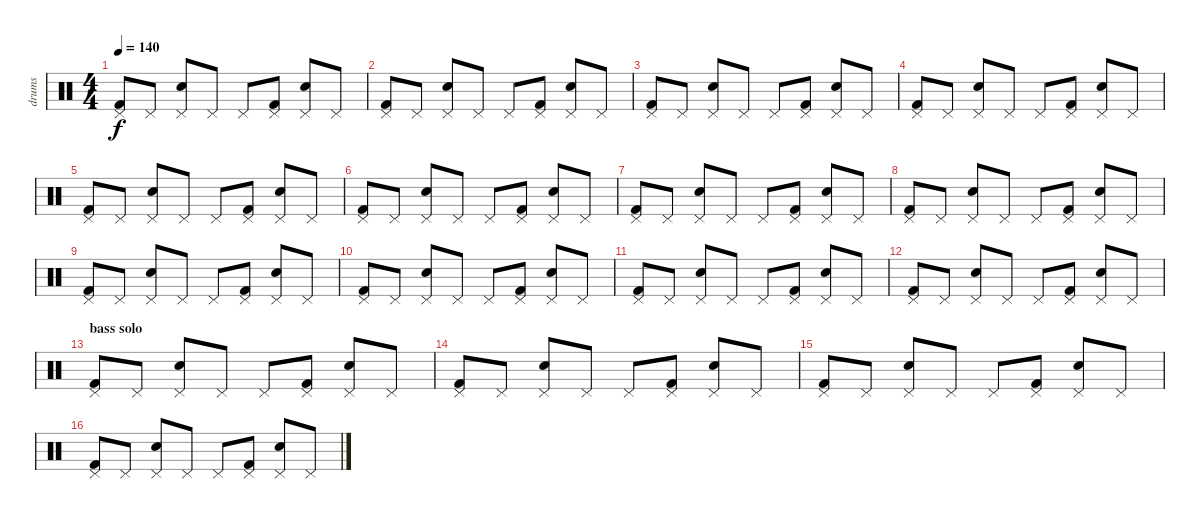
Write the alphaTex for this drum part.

\track ("drums" "drums") {instrument percussion}
\staff {score}
\articulation defaults
\ts (4 4)
\tempo 140
\clef neutral
\ks c
("Kick (hit) 2" "Pedal Hi-Hat (hit)").8{dy f} "Pedal Hi-Hat (hit)".8 ("Snare (hit) 2" "Pedal Hi-Hat (hit)").8 "Pedal Hi-Hat (hit)".8 "Pedal Hi-Hat (hit)".8 ("Kick (hit) 2" "Pedal Hi-Hat (hit)").8 ("Snare (hit) 2" "Pedal Hi-Hat (hit)").8 "Pedal Hi-Hat (hit)".8 |
("Kick (hit) 2" "Pedal Hi-Hat (hit)").8 "Pedal Hi-Hat (hit)".8 ("Snare (hit) 2" "Pedal Hi-Hat (hit)").8 "Pedal Hi-Hat (hit)".8 "Pedal Hi-Hat (hit)".8 ("Kick (hit) 2" "Pedal Hi-Hat (hit)").8 ("Snare (hit) 2" "Pedal Hi-Hat (hit)").8 "Pedal Hi-Hat (hit)".8 |
("Kick (hit) 2" "Pedal Hi-Hat (hit)").8 "Pedal Hi-Hat (hit)".8 ("Snare (hit) 2" "Pedal Hi-Hat (hit)").8 "Pedal Hi-Hat (hit)".8 "Pedal Hi-Hat (hit)".8 ("Kick (hit) 2" "Pedal Hi-Hat (hit)").8 ("Snare (hit) 2" "Pedal Hi-Hat (hit)").8 "Pedal Hi-Hat (hit)".8 |
("Kick (hit) 2" "Pedal Hi-Hat (hit)").8 "Pedal Hi-Hat (hit)".8 ("Snare (hit) 2" "Pedal Hi-Hat (hit)").8 "Pedal Hi-Hat (hit)".8 "Pedal Hi-Hat (hit)".8 ("Kick (hit) 2" "Pedal Hi-Hat (hit)").8 ("Snare (hit) 2" "Pedal Hi-Hat (hit)").8 "Pedal Hi-Hat (hit)".8 |
("Kick (hit) 2" "Pedal Hi-Hat (hit)").8 "Pedal Hi-Hat (hit)".8 ("Snare (hit) 2" "Pedal Hi-Hat (hit)").8 "Pedal Hi-Hat (hit)".8 "Pedal Hi-Hat (hit)".8 ("Kick (hit) 2" "Pedal Hi-Hat (hit)").8 ("Snare (hit) 2" "Pedal Hi-Hat (hit)").8 "Pedal Hi-Hat (hit)".8 |
("Kick (hit) 2" "Pedal Hi-Hat (hit)").8 "Pedal Hi-Hat (hit)".8 ("Snare (hit) 2" "Pedal Hi-Hat (hit)").8 "Pedal Hi-Hat (hit)".8 "Pedal Hi-Hat (hit)".8 ("Kick (hit) 2" "Pedal Hi-Hat (hit)").8 ("Snare (hit) 2" "Pedal Hi-Hat (hit)").8 "Pedal Hi-Hat (hit)".8 |
("Kick (hit) 2" "Pedal Hi-Hat (hit)").8 "Pedal Hi-Hat (hit)".8 ("Snare (hit) 2" "Pedal Hi-Hat (hit)").8 "Pedal Hi-Hat (hit)".8 "Pedal Hi-Hat (hit)".8 ("Kick (hit) 2" "Pedal Hi-Hat (hit)").8 ("Snare (hit) 2" "Pedal Hi-Hat (hit)").8 "Pedal Hi-Hat (hit)".8 |
("Kick (hit) 2" "Pedal Hi-Hat (hit)").8 "Pedal Hi-Hat (hit)".8 ("Snare (hit) 2" "Pedal Hi-Hat (hit)").8 "Pedal Hi-Hat (hit)".8 "Pedal Hi-Hat (hit)".8 ("Kick (hit) 2" "Pedal Hi-Hat (hit)").8 ("Snare (hit) 2" "Pedal Hi-Hat (hit)").8 "Pedal Hi-Hat (hit)".8 |
("Kick (hit) 2" "Pedal Hi-Hat (hit)").8 "Pedal Hi-Hat (hit)".8 ("Snare (hit) 2" "Pedal Hi-Hat (hit)").8 "Pedal Hi-Hat (hit)".8 "Pedal Hi-Hat (hit)".8 ("Kick (hit) 2" "Pedal Hi-Hat (hit)").8 ("Snare (hit) 2" "Pedal Hi-Hat (hit)").8 "Pedal Hi-Hat (hit)".8 |
("Kick (hit) 2" "Pedal Hi-Hat (hit)").8 "Pedal Hi-Hat (hit)".8 ("Snare (hit) 2" "Pedal Hi-Hat (hit)").8 "Pedal Hi-Hat (hit)".8 "Pedal Hi-Hat (hit)".8 ("Kick (hit) 2" "Pedal Hi-Hat (hit)").8 ("Snare (hit) 2" "Pedal Hi-Hat (hit)").8 "Pedal Hi-Hat (hit)".8 |
("Kick (hit) 2" "Pedal Hi-Hat (hit)").8 "Pedal Hi-Hat (hit)".8 ("Snare (hit) 2" "Pedal Hi-Hat (hit)").8 "Pedal Hi-Hat (hit)".8 "Pedal Hi-Hat (hit)".8 ("Kick (hit) 2" "Pedal Hi-Hat (hit)").8 ("Snare (hit) 2" "Pedal Hi-Hat (hit)").8 "Pedal Hi-Hat (hit)".8 |
("Kick (hit) 2" "Pedal Hi-Hat (hit)").8 "Pedal Hi-Hat (hit)".8 ("Snare (hit) 2" "Pedal Hi-Hat (hit)").8 "Pedal Hi-Hat (hit)".8 "Pedal Hi-Hat (hit)".8 ("Kick (hit) 2" "Pedal Hi-Hat (hit)").8 ("Snare (hit) 2" "Pedal Hi-Hat (hit)").8 "Pedal Hi-Hat (hit)".8 |
\section ("" "bass solo ")
("Kick (hit) 2" "Pedal Hi-Hat (hit)").8 "Pedal Hi-Hat (hit)".8 ("Snare (hit) 2" "Pedal Hi-Hat (hit)").8 "Pedal Hi-Hat (hit)".8 "Pedal Hi-Hat (hit)".8 ("Kick (hit) 2" "Pedal Hi-Hat (hit)").8 ("Snare (hit) 2" "Pedal Hi-Hat (hit)").8 "Pedal Hi-Hat (hit)".8 |
("Kick (hit) 2" "Pedal Hi-Hat (hit)").8 "Pedal Hi-Hat (hit)".8 ("Snare (hit) 2" "Pedal Hi-Hat (hit)").8 "Pedal Hi-Hat (hit)".8 "Pedal Hi-Hat (hit)".8 ("Kick (hit) 2" "Pedal Hi-Hat (hit)").8 ("Snare (hit) 2" "Pedal Hi-Hat (hit)").8 "Pedal Hi-Hat (hit)".8 |
("Kick (hit) 2" "Pedal Hi-Hat (hit)").8 "Pedal Hi-Hat (hit)".8 ("Snare (hit) 2" "Pedal Hi-Hat (hit)").8 "Pedal Hi-Hat (hit)".8 "Pedal Hi-Hat (hit)".8 ("Kick (hit) 2" "Pedal Hi-Hat (hit)").8 ("Snare (hit) 2" "Pedal Hi-Hat (hit)").8 "Pedal Hi-Hat (hit)".8 |
("Kick (hit) 2" "Pedal Hi-Hat (hit)").8 "Pedal Hi-Hat (hit)".8 ("Snare (hit) 2" "Pedal Hi-Hat (hit)").8 "Pedal Hi-Hat (hit)".8 "Pedal Hi-Hat (hit)".8 ("Kick (hit) 2" "Pedal Hi-Hat (hit)").8 ("Snare (hit) 2" "Pedal Hi-Hat (hit)").8 "Pedal Hi-Hat (hit)".8
